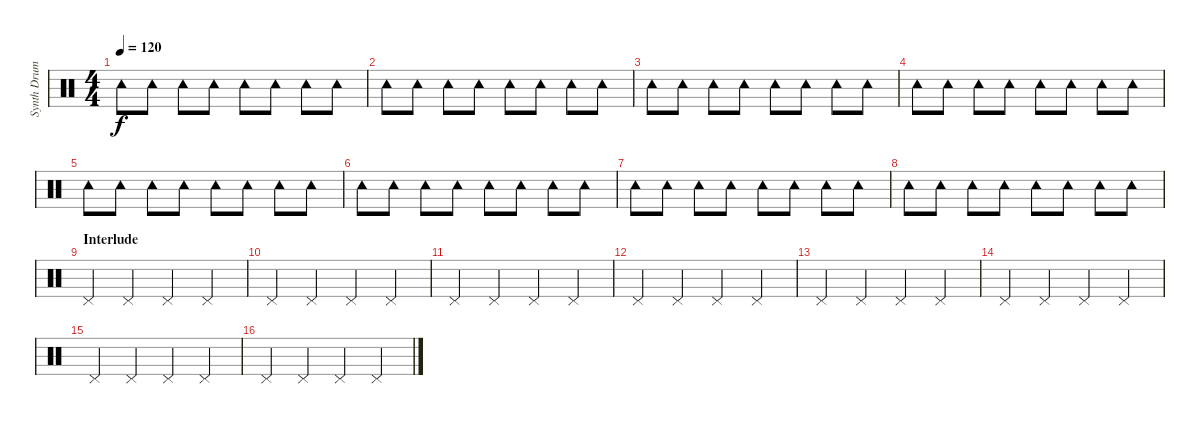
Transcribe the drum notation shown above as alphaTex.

\track ("Synth Drums hihat etc..." "Synth Drum") {instrument percussion}
\staff {score}
\articulation defaults
\ts (4 4)
\tempo 120
\clef neutral
\ks c "Tambourine (hit)".8{dy f} "Tambourine (hit)".8 "Tambourine (hit)".8 "Tambourine (hit)".8 "Tambourine (hit)".8 "Tambourine (hit)".8 "Tambourine (hit)".8 "Tambourine (hit)".8
|
"Tambourine (hit)".8 "Tambourine (hit)".8 "Tambourine (hit)".8 "Tambourine (hit)".8 "Tambourine (hit)".8 "Tambourine (hit)".8 "Tambourine (hit)".8 "Tambourine (hit)".8 |
"Tambourine (hit)".8 "Tambourine (hit)".8 "Tambourine (hit)".8 "Tambourine (hit)".8 "Tambourine (hit)".8 "Tambourine (hit)".8 "Tambourine (hit)".8 "Tambourine (hit)".8 |
"Tambourine (hit)".8 "Tambourine (hit)".8 "Tambourine (hit)".8 "Tambourine (hit)".8 "Tambourine (hit)".8 "Tambourine (hit)".8 "Tambourine (hit)".8 "Tambourine (hit)".8 |
"Tambourine (hit)".8 "Tambourine (hit)".8 "Tambourine (hit)".8 "Tambourine (hit)".8 "Tambourine (hit)".8 "Tambourine (hit)".8 "Tambourine (hit)".8 "Tambourine (hit)".8 |
"Tambourine (hit)".8 "Tambourine (hit)".8 "Tambourine (hit)".8 "Tambourine (hit)".8 "Tambourine (hit)".8 "Tambourine (hit)".8 "Tambourine (hit)".8 "Tambourine (hit)".8 |
"Tambourine (hit)".8 "Tambourine (hit)".8 "Tambourine (hit)".8 "Tambourine (hit)".8 "Tambourine (hit)".8 "Tambourine (hit)".8 "Tambourine (hit)".8 "Tambourine (hit)".8 |
"Tambourine (hit)".8 "Tambourine (hit)".8 "Tambourine (hit)".8 "Tambourine (hit)".8 "Tambourine (hit)".8 "Tambourine (hit)".8 "Tambourine (hit)".8 "Tambourine (hit)".8 |
\section ("" "Interlude")
"Pedal Hi-Hat (hit)".4 "Pedal Hi-Hat (hit)".4 "Pedal Hi-Hat (hit)".4 "Pedal Hi-Hat (hit)".4 |
"Pedal Hi-Hat (hit)".4 "Pedal Hi-Hat (hit)".4 "Pedal Hi-Hat (hit)".4 "Pedal Hi-Hat (hit)".4 |
"Pedal Hi-Hat (hit)".4 "Pedal Hi-Hat (hit)".4 "Pedal Hi-Hat (hit)".4 "Pedal Hi-Hat (hit)".4 |
"Pedal Hi-Hat (hit)".4 "Pedal Hi-Hat (hit)".4 "Pedal Hi-Hat (hit)".4 "Pedal Hi-Hat (hit)".4 |
"Pedal Hi-Hat (hit)".4 "Pedal Hi-Hat (hit)".4 "Pedal Hi-Hat (hit)".4 "Pedal Hi-Hat (hit)".4 |
"Pedal Hi-Hat (hit)".4 "Pedal Hi-Hat (hit)".4 "Pedal Hi-Hat (hit)".4 "Pedal Hi-Hat (hit)".4 |
"Pedal Hi-Hat (hit)".4 "Pedal Hi-Hat (hit)".4 "Pedal Hi-Hat (hit)".4 "Pedal Hi-Hat (hit)".4 |
"Pedal Hi-Hat (hit)".4 "Pedal Hi-Hat (hit)".4 "Pedal Hi-Hat (hit)".4 "Pedal Hi-Hat (hit)".4
